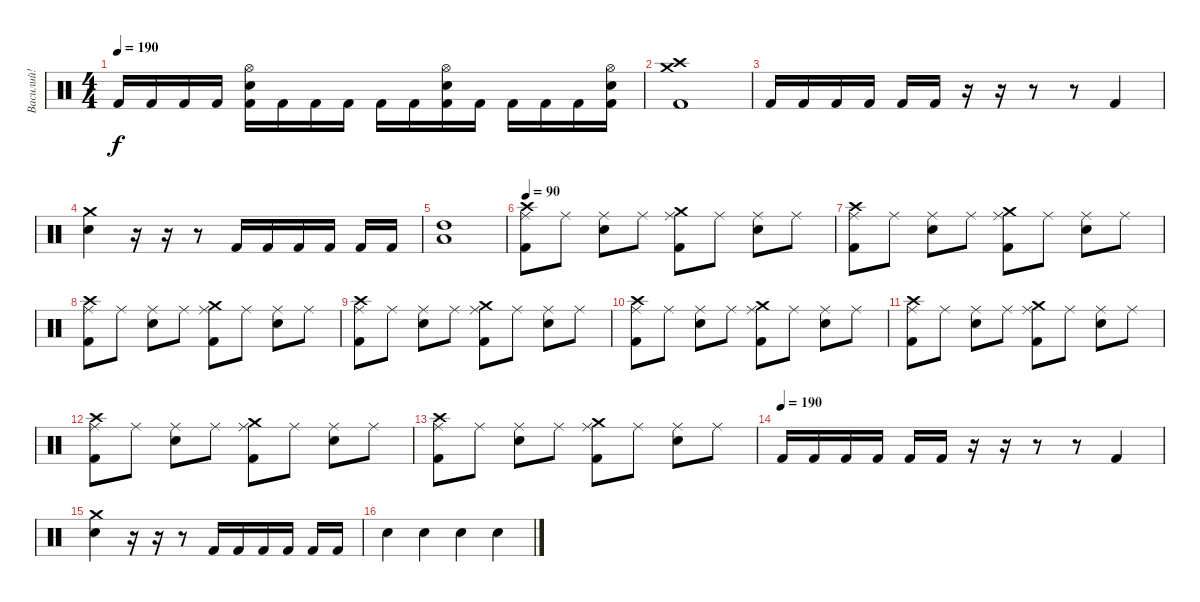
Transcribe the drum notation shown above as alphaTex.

\track ("Василий!" "Василий!") {instrument percussion}
\staff {score}
\articulation defaults
\ts (4 4)
\tempo 190
\clef neutral
\ks c "Kick (hit) 2".16{dy f} "Kick (hit) 2".16 "Kick (hit) 2".16 "Kick (hit) 2".16
("Kick (hit) 2" "Electric Snare (hit)" "Hi-Hat (open)").16 "Kick (hit) 2".16 "Kick (hit) 2".16 "Kick (hit) 2".16 "Kick (hit) 2".16 "Kick (hit) 2".16 ("Kick (hit) 2" "Electric Snare (hit)" "Hi-Hat (open)").16 "Kick (hit) 2".16 "Kick (hit) 2".16 "Kick (hit) 2".16 "Kick (hit) 2".16 ("Kick (hit) 2" "Electric Snare (hit)" "Hi-Hat (open)").16 |
("Kick (hit) 2" "Crash high (hit)" "Crash medium (hit)").1 |
"Kick (hit) 2".16 "Kick (hit) 2".16 "Kick (hit) 2".16 "Kick (hit) 2".16 "Kick (hit) 2".16 "Kick (hit) 2".16 r.16 r.16 r.8 r.8 "Kick (hit) 2".4 |
("Electric Snare (hit)" "Crash medium (hit)").4 r.16 r.16 r.8 "Kick (hit) 2".16 "Kick (hit) 2".16 "Kick (hit) 2".16 "Kick (hit) 2".16 "Kick (hit) 2".16 "Kick (hit) 2".16 |
("Low Tom (hit)" "High Tom (hit)").1 |
\tempo 90
("Ride (middle)" "Kick (hit) 2" "Crash high (hit)").8 "Ride (middle)".8 ("Ride (middle)" "Electric Snare (hit)").8 "Ride (middle)".8 ("Ride (middle)" "Kick (hit) 2" "Crash medium (hit)").8 "Ride (middle)".8 ("Ride (middle)" "Electric Snare (hit)").8 "Ride (middle)".8 |
("Ride (middle)" "Kick (hit) 2" "Crash high (hit)").8 "Ride (middle)".8 ("Ride (middle)" "Electric Snare (hit)").8 "Ride (middle)".8 ("Ride (middle)" "Kick (hit) 2" "Crash medium (hit)").8 "Ride (middle)".8 ("Ride (middle)" "Electric Snare (hit)").8 "Ride (middle)".8 |
("Ride (middle)" "Kick (hit) 2" "Crash high (hit)").8 "Ride (middle)".8 ("Ride (middle)" "Electric Snare (hit)").8 "Ride (middle)".8 ("Ride (middle)" "Kick (hit) 2" "Crash medium (hit)").8 "Ride (middle)".8 ("Ride (middle)" "Electric Snare (hit)").8 "Ride (middle)".8 |
("Ride (middle)" "Kick (hit) 2" "Crash high (hit)").8 "Ride (middle)".8 ("Ride (middle)" "Electric Snare (hit)").8 "Ride (middle)".8 ("Ride (middle)" "Kick (hit) 2" "Crash medium (hit)").8 "Ride (middle)".8 ("Ride (middle)" "Electric Snare (hit)").8 "Ride (middle)".8 |
("Ride (middle)" "Kick (hit) 2" "Crash high (hit)").8 "Ride (middle)".8 ("Ride (middle)" "Electric Snare (hit)").8 "Ride (middle)".8 ("Ride (middle)" "Kick (hit) 2" "Crash medium (hit)").8 "Ride (middle)".8 ("Ride (middle)" "Electric Snare (hit)").8 "Ride (middle)".8 |
("Ride (middle)" "Kick (hit) 2" "Crash high (hit)").8 "Ride (middle)".8 ("Ride (middle)" "Electric Snare (hit)").8 "Ride (middle)".8 ("Ride (middle)" "Kick (hit) 2" "Crash medium (hit)").8 "Ride (middle)".8 ("Ride (middle)" "Electric Snare (hit)").8 "Ride (middle)".8 |
("Ride (middle)" "Kick (hit) 2" "Crash high (hit)").8 "Ride (middle)".8 ("Ride (middle)" "Electric Snare (hit)").8 "Ride (middle)".8 ("Ride (middle)" "Kick (hit) 2" "Crash medium (hit)").8 "Ride (middle)".8 ("Ride (middle)" "Electric Snare (hit)").8 "Ride (middle)".8 |
("Ride (middle)" "Kick (hit) 2" "Crash high (hit)").8 "Ride (middle)".8 ("Ride (middle)" "Electric Snare (hit)").8 "Ride (middle)".8 ("Ride (middle)" "Kick (hit) 2" "Crash medium (hit)").8 "Ride (middle)".8 ("Ride (middle)" "Electric Snare (hit)").8 "Ride (middle)".8 |
\tempo (190)
"Kick (hit) 2".16 "Kick (hit) 2".16 "Kick (hit) 2".16 "Kick (hit) 2".16 "Kick (hit) 2".16 "Kick (hit) 2".16 r.16 r.16 r.8 r.8 "Kick (hit) 2".4 |
("Electric Snare (hit)" "Crash medium (hit)").4 r.16 r.16 r.8 "Kick (hit) 2".16 "Kick (hit) 2".16 "Kick (hit) 2".16 "Kick (hit) 2".16 "Kick (hit) 2".16 "Kick (hit) 2".16 |
"Electric Snare (hit)".4 "Electric Snare (hit)".4 "Electric Snare (hit)".4 "Electric Snare (hit)".4
